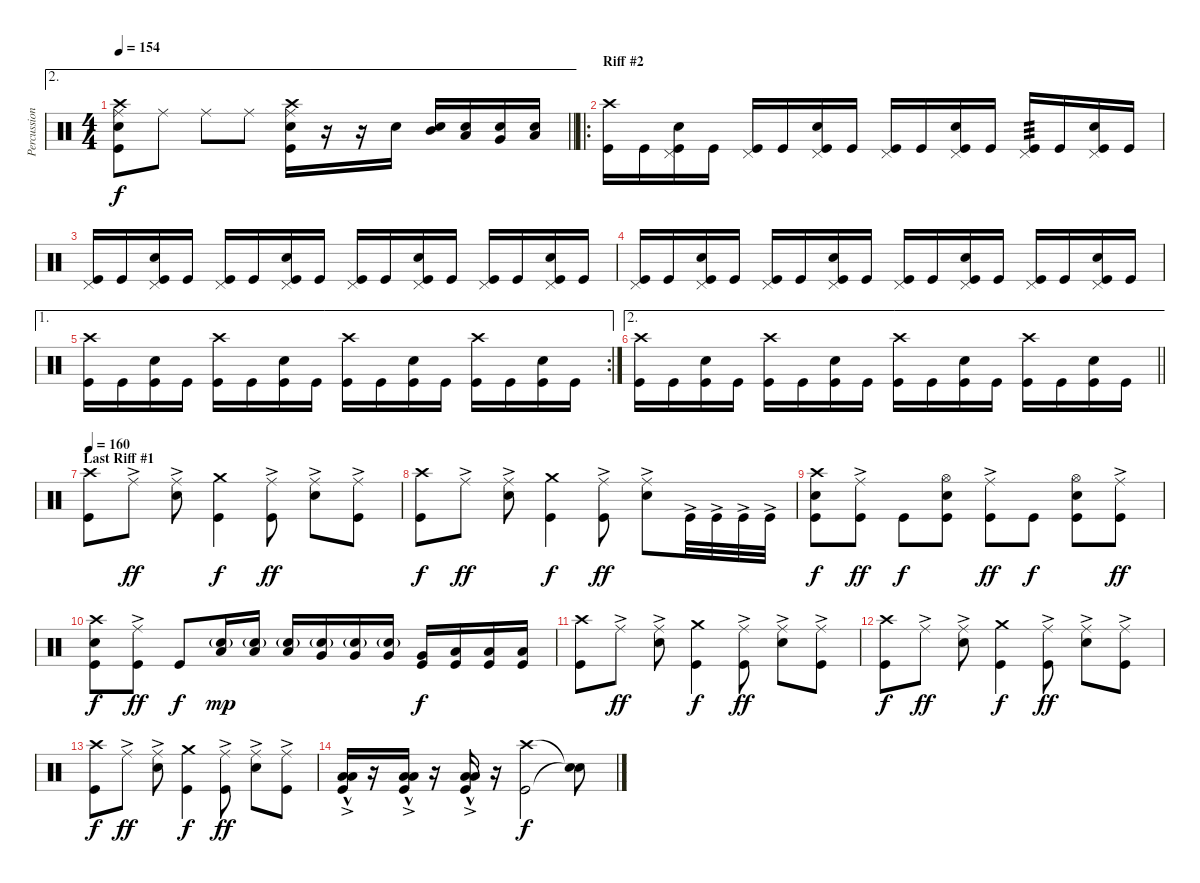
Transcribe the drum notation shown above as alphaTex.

\track ("Percussion" "Percussion") {instrument percussion}
\staff {score}
\articulation defaults
\ae 2
\ts (4 4)
\tempo 154
\clef neutral
\barLineRight lightlight
\ks c
("Ride (middle)" "Crash high (hit)" "Electric Snare (hit)" "Kick (hit)").8{dy f} "Ride (middle)".8 "Ride (middle)".8 "Ride (middle)".8 ("Ride (middle)" "Crash high (hit)" "Electric Snare (hit)" "Kick (hit)").16 r.16 r.16 "Electric Snare (hit)".16 ("Electric Snare (hit)" "Mid Tom (hit)").16 ("Electric Snare (hit)" "Low Tom (hit)").16 ("Electric Snare (hit)" "Very Low Tom (hit)").16 ("Electric Snare (hit)" "Low Floor Tom (hit)").16 |
\ro
\section ("" "Riff #2")
("Crash high (hit)" "Kick (hit)").16 "Kick (hit)".16 ("Pedal Hi-Hat (hit)" "Electric Snare (hit)" "Kick (hit)").16 "Kick (hit)".16 ("Pedal Hi-Hat (hit)" "Kick (hit)").16 "Kick (hit)".16 ("Pedal Hi-Hat (hit)" "Electric Snare (hit)" "Kick (hit)").16 "Kick (hit)".16 ("Pedal Hi-Hat (hit)" "Kick (hit)").16 "Kick (hit)".16 ("Pedal Hi-Hat (hit)" "Electric Snare (hit)" "Kick (hit)").16 "Kick (hit)".16 ("Pedal Hi-Hat (hit)" "Kick (hit)").16{tp 3} "Kick (hit)".16 ("Pedal Hi-Hat (hit)" "Electric Snare (hit)" "Kick (hit)").16 "Kick (hit)".16 |
("Pedal Hi-Hat (hit)" "Kick (hit)").16 "Kick (hit)".16 ("Pedal Hi-Hat (hit)" "Electric Snare (hit)" "Kick (hit)").16 "Kick (hit)".16 ("Pedal Hi-Hat (hit)" "Kick (hit)").16 "Kick (hit)".16 ("Pedal Hi-Hat (hit)" "Electric Snare (hit)" "Kick (hit)").16 "Kick (hit)".16 ("Pedal Hi-Hat (hit)" "Kick (hit)").16 "Kick (hit)".16 ("Pedal Hi-Hat (hit)" "Electric Snare (hit)" "Kick (hit)").16 "Kick (hit)".16 ("Pedal Hi-Hat (hit)" "Kick (hit)").16 "Kick (hit)".16 ("Pedal Hi-Hat (hit)" "Electric Snare (hit)" "Kick (hit)").16 "Kick (hit)".16 |
("Pedal Hi-Hat (hit)" "Kick (hit)").16 "Kick (hit)".16 ("Pedal Hi-Hat (hit)" "Electric Snare (hit)" "Kick (hit)").16 "Kick (hit)".16 ("Pedal Hi-Hat (hit)" "Kick (hit)").16 "Kick (hit)".16 ("Pedal Hi-Hat (hit)" "Electric Snare (hit)" "Kick (hit)").16 "Kick (hit)".16 ("Pedal Hi-Hat (hit)" "Kick (hit)").16 "Kick (hit)".16 ("Pedal Hi-Hat (hit)" "Electric Snare (hit)" "Kick (hit)").16 "Kick (hit)".16 ("Pedal Hi-Hat (hit)" "Kick (hit)").16 "Kick (hit)".16 ("Pedal Hi-Hat (hit)" "Electric Snare (hit)" "Kick (hit)").16 "Kick (hit)".16 |
\ae 1
\rc 2
("Crash high (hit)" "Kick (hit)").16 "Kick (hit)".16 ("Electric Snare (hit)" "Kick (hit)").16 "Kick (hit)".16 ("Crash high (hit)" "Kick (hit)").16 "Kick (hit)".16 ("Electric Snare (hit)" "Kick (hit)").16 "Kick (hit)".16 ("Crash high (hit)" "Kick (hit)").16 "Kick (hit)".16 ("Electric Snare (hit)" "Kick (hit)").16 "Kick (hit)".16 ("Crash high (hit)" "Kick (hit)").16 "Kick (hit)".16 ("Electric Snare (hit)" "Kick (hit)").16 "Kick (hit)".16 |
\ae 2
\barLineRight lightlight
("Crash high (hit)" "Kick (hit)").16 "Kick (hit)".16 ("Electric Snare (hit)" "Kick (hit)").16 "Kick (hit)".16 ("Crash high (hit)" "Kick (hit)").16 "Kick (hit)".16 ("Electric Snare (hit)" "Kick (hit)").16 "Kick (hit)".16 ("Crash high (hit)" "Kick (hit)").16 "Kick (hit)".16 ("Electric Snare (hit)" "Kick (hit)").16 "Kick (hit)".16 ("Crash high (hit)" "Kick (hit)").16 "Kick (hit)".16 ("Electric Snare (hit)" "Kick (hit)").16 "Kick (hit)".16 |
\section ("" "Last Riff #1")
\tempo 160
("Crash high (hit)" "Kick (hit)").8 "Ride (middle)"{ac}.8{dy ff} ("Ride (middle)"{ac} "Electric Snare (hit)").8 ("Crash medium (hit)" "Kick (hit)").4{dy f} ("Ride (middle)"{ac} "Kick (hit)").8{dy ff} ("Ride (middle)"{ac} "Electric Snare (hit)").8 ("Ride (middle)"{ac} "Kick (hit)").8 |
("Crash high (hit)" "Kick (hit)").8{dy f} "Ride (middle)"{ac}.8{dy ff} ("Ride (middle)"{ac} "Electric Snare (hit)").8 ("Crash medium (hit)" "Kick (hit)").4{dy f} ("Ride (middle)"{ac} "Kick (hit)").8{dy ff} ("Ride (middle)"{ac} "Electric Snare (hit)").8 "Kick (hit)"{ac}.32 "Kick (hit)"{ac}.32 "Kick (hit)"{ac}.32 "Kick (hit)"{ac}.32 |
("Crash high (hit)" "Electric Snare (hit)" "Kick (hit)").8{dy f} ("Ride (middle)"{ac} "Kick (hit)").8{dy ff} "Kick (hit)".8{dy f} ("Hi-Hat (open)" "Electric Snare (hit)" "Kick (hit)").8 ("Ride (middle)"{ac} "Kick (hit)").8{dy ff} "Kick (hit)".8{dy f} ("Hi-Hat (open)" "Electric Snare (hit)" "Kick (hit)").8 ("Ride (middle)"{ac} "Kick (hit)").8{dy ff} |
("Crash high (hit)" "Electric Snare (hit)" "Kick (hit)").8{dy f} ("Ride (middle)"{ac} "Kick (hit)").8{dy ff} "Kick (hit)".8{dy f} ("Low Tom (hit)" "Electric Snare (hit)"{g}).16{dy mp} ("Low Tom (hit)" "Electric Snare (hit)"{g}).16 ("Low Tom (hit)" "Electric Snare (hit)"{g}).16 ("Very Low Tom (hit)" "Electric Snare (hit)"{g}).16 ("Very Low Tom (hit)" "Electric Snare (hit)"{g}).16 ("Very Low Tom (hit)" "Electric Snare (hit)"{g}).16 ("Very Low Tom (hit)" "Kick (hit)").16{dy f} ("Low Floor Tom (hit)" "Kick (hit)").16 ("Low Floor Tom (hit)" "Kick (hit)").16 ("Low Floor Tom (hit)" "Kick (hit)").16 |
("Crash high (hit)" "Kick (hit)").8 "Ride (middle)"{ac}.8{dy ff} ("Ride (middle)"{ac} "Electric Snare (hit)").8 ("Crash medium (hit)" "Kick (hit)").4{dy f} ("Ride (middle)"{ac} "Kick (hit)").8{dy ff} ("Ride (middle)"{ac} "Electric Snare (hit)").8 ("Ride (middle)"{ac} "Kick (hit)").8 |
("Crash high (hit)" "Kick (hit)").8{dy f} "Ride (middle)"{ac}.8{dy ff} ("Ride (middle)"{ac} "Electric Snare (hit)").8 ("Crash medium (hit)" "Kick (hit)").4{dy f} ("Ride (middle)"{ac} "Kick (hit)").8{dy ff} ("Ride (middle)"{ac} "Electric Snare (hit)").8 ("Ride (middle)"{ac} "Kick (hit)").8 |
("Crash high (hit)" "Kick (hit)").8{dy f} "Ride (middle)"{ac}.8{dy ff} ("Ride (middle)"{ac} "Electric Snare (hit)").8 ("Crash medium (hit)" "Kick (hit)").4{dy f} ("Ride (middle)"{ac} "Kick (hit)").8{dy ff} ("Ride (middle)"{ac} "Electric Snare (hit)").8 ("Ride (middle)"{ac} "Kick (hit)").8 |
("Low Floor Tom (hit)"{hac} "Low Tom (hit)"{ac} "Kick (hit)").16 r.16 ("Low Floor Tom (hit)"{hac} "Low Tom (hit)"{ac} "Kick (hit)").16 r.16 ("Low Floor Tom (hit)"{hac} "Low Tom (hit)"{ac} "Kick (hit)").16 r.16 ("Crash high (hit)" "Kick (hit)").2{dy f} ("Snare (hit)"{t} "Snare (hit)"{t}).8
